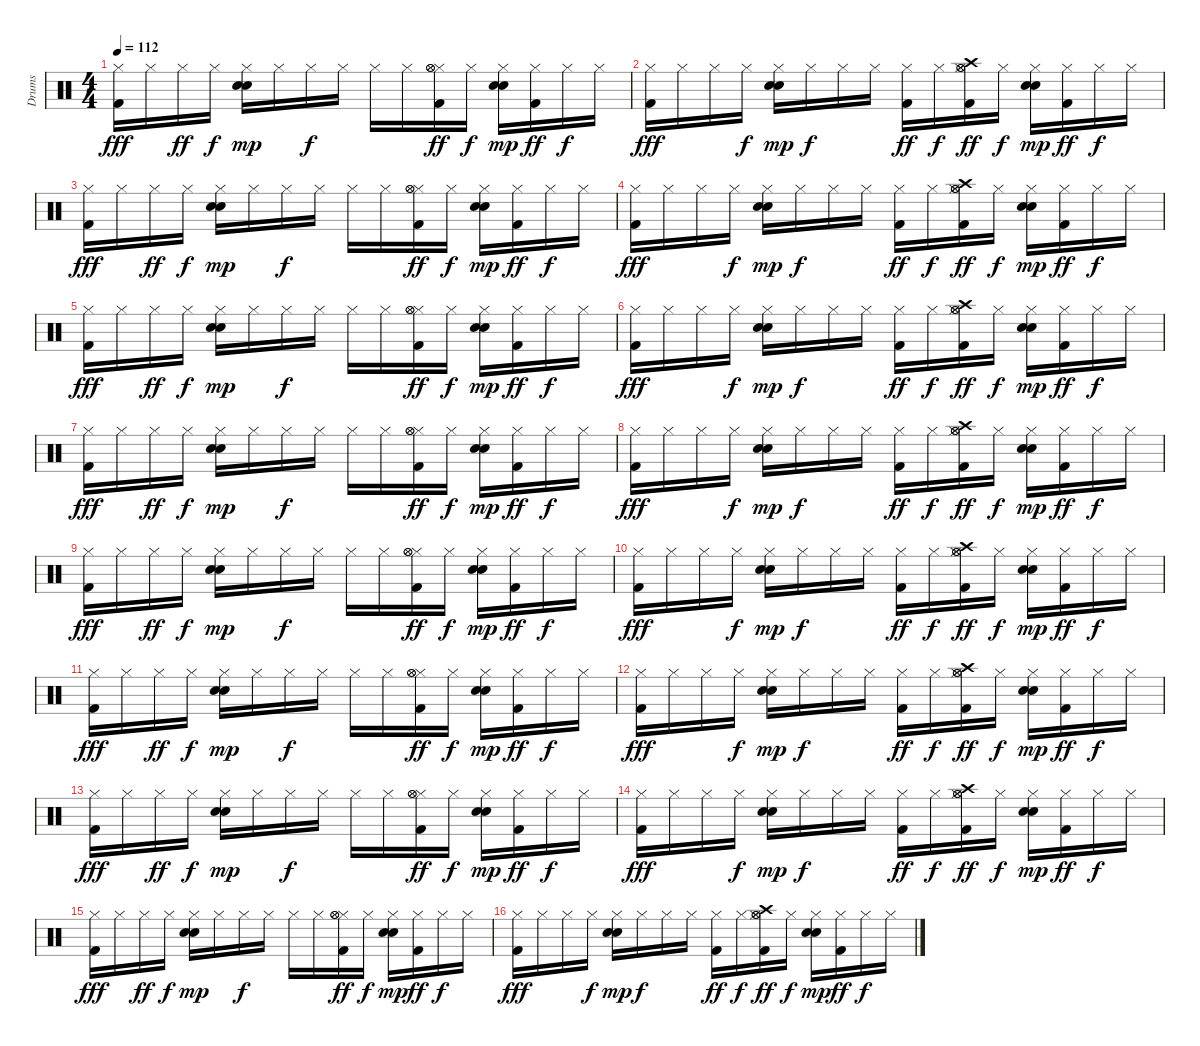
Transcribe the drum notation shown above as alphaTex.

\track ("Drums" "Drums") {instrument percussion}
\staff {score}
\articulation defaults
\ts (4 4)
\tempo 112
\clef neutral
\ks c
("Kick (hit) 2" "Hi-Hat (closed)").16{dy fff} "Hi-Hat (closed)".16 "Hi-Hat (closed)".16{dy ff} "Hi-Hat (closed)".16{dy f} ("Snare (hit) 2" "Hi-Hat (closed)" "Hand Clap (hit)").16{dy mp} "Hi-Hat (closed)".16 "Hi-Hat (closed)".16{dy f} "Hi-Hat (closed)".16 "Hi-Hat (closed)".16 "Hi-Hat (closed)".16 ("Kick (hit) 2" "Hi-Hat (closed)" "Hi-Hat (open)" "Hi-Hat (open)").16{dy ff} "Hi-Hat (closed)".16{dy f} ("Snare (hit) 2" "Hi-Hat (closed)" "Hand Clap (hit)").16{dy mp} ("Kick (hit) 2" "Hi-Hat (closed)").16{dy ff} "Hi-Hat (closed)".16{dy f} "Hi-Hat (closed)".16 |
("Kick (hit) 2" "Hi-Hat (closed)").16{dy fff} "Hi-Hat (closed)".16 "Hi-Hat (closed)".16 "Hi-Hat (closed)".16{dy f} ("Snare (hit) 2" "Hi-Hat (closed)" "Hand Clap (hit)").16{dy mp} "Hi-Hat (closed)".16{dy f} "Hi-Hat (closed)".16 "Hi-Hat (closed)".16 ("Kick (hit) 2" "Hi-Hat (closed)").16{dy ff} "Hi-Hat (closed)".16{dy f} ("Kick (hit) 2" "Crash high (hit)" "Hi-Hat (closed)" "Hi-Hat (open)" "Hi-Hat (open)").16{dy ff} "Hi-Hat (closed)".16{dy f} ("Snare (hit) 2" "Hi-Hat (closed)" "Hand Clap (hit)").16{dy mp} ("Kick (hit) 2" "Hi-Hat (closed)").16{dy ff} "Hi-Hat (closed)".16{dy f} "Hi-Hat (closed)".16 |
("Kick (hit) 2" "Hi-Hat (closed)").16{dy fff} "Hi-Hat (closed)".16 "Hi-Hat (closed)".16{dy ff} "Hi-Hat (closed)".16{dy f} ("Snare (hit) 2" "Hi-Hat (closed)" "Hand Clap (hit)").16{dy mp} "Hi-Hat (closed)".16 "Hi-Hat (closed)".16{dy f} "Hi-Hat (closed)".16 "Hi-Hat (closed)".16 "Hi-Hat (closed)".16 ("Kick (hit) 2" "Hi-Hat (closed)" "Hi-Hat (open)" "Hi-Hat (open)").16{dy ff} "Hi-Hat (closed)".16{dy f} ("Snare (hit) 2" "Hi-Hat (closed)" "Hand Clap (hit)").16{dy mp} ("Kick (hit) 2" "Hi-Hat (closed)").16{dy ff} "Hi-Hat (closed)".16{dy f} "Hi-Hat (closed)".16 |
("Kick (hit) 2" "Hi-Hat (closed)").16{dy fff} "Hi-Hat (closed)".16 "Hi-Hat (closed)".16 "Hi-Hat (closed)".16{dy f} ("Snare (hit) 2" "Hi-Hat (closed)" "Hand Clap (hit)").16{dy mp} "Hi-Hat (closed)".16{dy f} "Hi-Hat (closed)".16 "Hi-Hat (closed)".16 ("Kick (hit) 2" "Hi-Hat (closed)").16{dy ff} "Hi-Hat (closed)".16{dy f} ("Kick (hit) 2" "Crash high (hit)" "Hi-Hat (closed)" "Hi-Hat (open)" "Hi-Hat (open)").16{dy ff} "Hi-Hat (closed)".16{dy f} ("Snare (hit) 2" "Hi-Hat (closed)" "Hand Clap (hit)").16{dy mp} ("Kick (hit) 2" "Hi-Hat (closed)").16{dy ff} "Hi-Hat (closed)".16{dy f} "Hi-Hat (closed)".16 |
("Kick (hit) 2" "Hi-Hat (closed)").16{dy fff} "Hi-Hat (closed)".16 "Hi-Hat (closed)".16{dy ff} "Hi-Hat (closed)".16{dy f} ("Snare (hit) 2" "Hi-Hat (closed)" "Hand Clap (hit)").16{dy mp} "Hi-Hat (closed)".16 "Hi-Hat (closed)".16{dy f} "Hi-Hat (closed)".16 "Hi-Hat (closed)".16 "Hi-Hat (closed)".16 ("Kick (hit) 2" "Hi-Hat (closed)" "Hi-Hat (open)" "Hi-Hat (open)").16{dy ff} "Hi-Hat (closed)".16{dy f} ("Snare (hit) 2" "Hi-Hat (closed)" "Hand Clap (hit)").16{dy mp} ("Kick (hit) 2" "Hi-Hat (closed)").16{dy ff} "Hi-Hat (closed)".16{dy f} "Hi-Hat (closed)".16 |
("Kick (hit) 2" "Hi-Hat (closed)").16{dy fff} "Hi-Hat (closed)".16 "Hi-Hat (closed)".16 "Hi-Hat (closed)".16{dy f} ("Snare (hit) 2" "Hi-Hat (closed)" "Hand Clap (hit)").16{dy mp} "Hi-Hat (closed)".16{dy f} "Hi-Hat (closed)".16 "Hi-Hat (closed)".16 ("Kick (hit) 2" "Hi-Hat (closed)").16{dy ff} "Hi-Hat (closed)".16{dy f} ("Kick (hit) 2" "Crash high (hit)" "Hi-Hat (closed)" "Hi-Hat (open)" "Hi-Hat (open)").16{dy ff} "Hi-Hat (closed)".16{dy f} ("Snare (hit) 2" "Hi-Hat (closed)" "Hand Clap (hit)").16{dy mp} ("Kick (hit) 2" "Hi-Hat (closed)").16{dy ff} "Hi-Hat (closed)".16{dy f} "Hi-Hat (closed)".16 |
("Kick (hit) 2" "Hi-Hat (closed)").16{dy fff} "Hi-Hat (closed)".16 "Hi-Hat (closed)".16{dy ff} "Hi-Hat (closed)".16{dy f} ("Snare (hit) 2" "Hi-Hat (closed)" "Hand Clap (hit)").16{dy mp} "Hi-Hat (closed)".16 "Hi-Hat (closed)".16{dy f} "Hi-Hat (closed)".16 "Hi-Hat (closed)".16 "Hi-Hat (closed)".16 ("Kick (hit) 2" "Hi-Hat (closed)" "Hi-Hat (open)" "Hi-Hat (open)").16{dy ff} "Hi-Hat (closed)".16{dy f} ("Snare (hit) 2" "Hi-Hat (closed)" "Hand Clap (hit)").16{dy mp} ("Kick (hit) 2" "Hi-Hat (closed)").16{dy ff} "Hi-Hat (closed)".16{dy f} "Hi-Hat (closed)".16 |
("Kick (hit) 2" "Hi-Hat (closed)").16{dy fff} "Hi-Hat (closed)".16 "Hi-Hat (closed)".16 "Hi-Hat (closed)".16{dy f} ("Snare (hit) 2" "Hi-Hat (closed)" "Hand Clap (hit)").16{dy mp} "Hi-Hat (closed)".16{dy f} "Hi-Hat (closed)".16 "Hi-Hat (closed)".16 ("Kick (hit) 2" "Hi-Hat (closed)").16{dy ff} "Hi-Hat (closed)".16{dy f} ("Kick (hit) 2" "Crash high (hit)" "Hi-Hat (closed)" "Hi-Hat (open)" "Hi-Hat (open)").16{dy ff} "Hi-Hat (closed)".16{dy f} ("Snare (hit) 2" "Hi-Hat (closed)" "Hand Clap (hit)").16{dy mp} ("Kick (hit) 2" "Hi-Hat (closed)").16{dy ff} "Hi-Hat (closed)".16{dy f} "Hi-Hat (closed)".16 |
("Kick (hit) 2" "Hi-Hat (closed)").16{dy fff} "Hi-Hat (closed)".16 "Hi-Hat (closed)".16{dy ff} "Hi-Hat (closed)".16{dy f} ("Snare (hit) 2" "Hi-Hat (closed)" "Hand Clap (hit)").16{dy mp} "Hi-Hat (closed)".16 "Hi-Hat (closed)".16{dy f} "Hi-Hat (closed)".16 "Hi-Hat (closed)".16 "Hi-Hat (closed)".16 ("Kick (hit) 2" "Hi-Hat (closed)" "Hi-Hat (open)" "Hi-Hat (open)").16{dy ff} "Hi-Hat (closed)".16{dy f} ("Snare (hit) 2" "Hi-Hat (closed)" "Hand Clap (hit)").16{dy mp} ("Kick (hit) 2" "Hi-Hat (closed)").16{dy ff} "Hi-Hat (closed)".16{dy f} "Hi-Hat (closed)".16 |
("Kick (hit) 2" "Hi-Hat (closed)").16{dy fff} "Hi-Hat (closed)".16 "Hi-Hat (closed)".16 "Hi-Hat (closed)".16{dy f} ("Snare (hit) 2" "Hi-Hat (closed)" "Hand Clap (hit)").16{dy mp} "Hi-Hat (closed)".16{dy f} "Hi-Hat (closed)".16 "Hi-Hat (closed)".16 ("Kick (hit) 2" "Hi-Hat (closed)").16{dy ff} "Hi-Hat (closed)".16{dy f} ("Kick (hit) 2" "Crash high (hit)" "Hi-Hat (closed)" "Hi-Hat (open)" "Hi-Hat (open)").16{dy ff} "Hi-Hat (closed)".16{dy f} ("Snare (hit) 2" "Hi-Hat (closed)" "Hand Clap (hit)").16{dy mp} ("Kick (hit) 2" "Hi-Hat (closed)").16{dy ff} "Hi-Hat (closed)".16{dy f} "Hi-Hat (closed)".16 |
("Kick (hit) 2" "Hi-Hat (closed)").16{dy fff} "Hi-Hat (closed)".16 "Hi-Hat (closed)".16{dy ff} "Hi-Hat (closed)".16{dy f} ("Snare (hit) 2" "Hi-Hat (closed)" "Hand Clap (hit)").16{dy mp} "Hi-Hat (closed)".16 "Hi-Hat (closed)".16{dy f} "Hi-Hat (closed)".16 "Hi-Hat (closed)".16 "Hi-Hat (closed)".16 ("Kick (hit) 2" "Hi-Hat (closed)" "Hi-Hat (open)" "Hi-Hat (open)").16{dy ff} "Hi-Hat (closed)".16{dy f} ("Snare (hit) 2" "Hi-Hat (closed)" "Hand Clap (hit)").16{dy mp} ("Kick (hit) 2" "Hi-Hat (closed)").16{dy ff} "Hi-Hat (closed)".16{dy f} "Hi-Hat (closed)".16 |
("Kick (hit) 2" "Hi-Hat (closed)").16{dy fff} "Hi-Hat (closed)".16 "Hi-Hat (closed)".16 "Hi-Hat (closed)".16{dy f} ("Snare (hit) 2" "Hi-Hat (closed)" "Hand Clap (hit)").16{dy mp} "Hi-Hat (closed)".16{dy f} "Hi-Hat (closed)".16 "Hi-Hat (closed)".16 ("Kick (hit) 2" "Hi-Hat (closed)").16{dy ff} "Hi-Hat (closed)".16{dy f} ("Kick (hit) 2" "Crash high (hit)" "Hi-Hat (closed)" "Hi-Hat (open)" "Hi-Hat (open)").16{dy ff} "Hi-Hat (closed)".16{dy f} ("Snare (hit) 2" "Hi-Hat (closed)" "Hand Clap (hit)").16{dy mp} ("Kick (hit) 2" "Hi-Hat (closed)").16{dy ff} "Hi-Hat (closed)".16{dy f} "Hi-Hat (closed)".16 |
("Kick (hit) 2" "Hi-Hat (closed)").16{dy fff} "Hi-Hat (closed)".16 "Hi-Hat (closed)".16{dy ff} "Hi-Hat (closed)".16{dy f} ("Snare (hit) 2" "Hi-Hat (closed)" "Hand Clap (hit)").16{dy mp} "Hi-Hat (closed)".16 "Hi-Hat (closed)".16{dy f} "Hi-Hat (closed)".16 "Hi-Hat (closed)".16 "Hi-Hat (closed)".16 ("Kick (hit) 2" "Hi-Hat (closed)" "Hi-Hat (open)" "Hi-Hat (open)").16{dy ff} "Hi-Hat (closed)".16{dy f} ("Snare (hit) 2" "Hi-Hat (closed)" "Hand Clap (hit)").16{dy mp} ("Kick (hit) 2" "Hi-Hat (closed)").16{dy ff} "Hi-Hat (closed)".16{dy f} "Hi-Hat (closed)".16 |
("Kick (hit) 2" "Hi-Hat (closed)").16{dy fff} "Hi-Hat (closed)".16 "Hi-Hat (closed)".16 "Hi-Hat (closed)".16{dy f} ("Snare (hit) 2" "Hi-Hat (closed)" "Hand Clap (hit)").16{dy mp} "Hi-Hat (closed)".16{dy f} "Hi-Hat (closed)".16 "Hi-Hat (closed)".16 ("Kick (hit) 2" "Hi-Hat (closed)").16{dy ff} "Hi-Hat (closed)".16{dy f} ("Kick (hit) 2" "Crash high (hit)" "Hi-Hat (closed)" "Hi-Hat (open)" "Hi-Hat (open)").16{dy ff} "Hi-Hat (closed)".16{dy f} ("Snare (hit) 2" "Hi-Hat (closed)" "Hand Clap (hit)").16{dy mp} ("Kick (hit) 2" "Hi-Hat (closed)").16{dy ff} "Hi-Hat (closed)".16{dy f} "Hi-Hat (closed)".16 |
("Kick (hit) 2" "Hi-Hat (closed)").16{dy fff} "Hi-Hat (closed)".16 "Hi-Hat (closed)".16{dy ff} "Hi-Hat (closed)".16{dy f} ("Snare (hit) 2" "Hi-Hat (closed)" "Hand Clap (hit)").16{dy mp} "Hi-Hat (closed)".16 "Hi-Hat (closed)".16{dy f} "Hi-Hat (closed)".16 "Hi-Hat (closed)".16 "Hi-Hat (closed)".16 ("Kick (hit) 2" "Hi-Hat (closed)" "Hi-Hat (open)" "Hi-Hat (open)").16{dy ff} "Hi-Hat (closed)".16{dy f} ("Snare (hit) 2" "Hi-Hat (closed)" "Hand Clap (hit)").16{dy mp} ("Kick (hit) 2" "Hi-Hat (closed)").16{dy ff} "Hi-Hat (closed)".16{dy f} "Hi-Hat (closed)".16 |
("Kick (hit) 2" "Hi-Hat (closed)").16{dy fff} "Hi-Hat (closed)".16 "Hi-Hat (closed)".16 "Hi-Hat (closed)".16{dy f} ("Snare (hit) 2" "Hi-Hat (closed)" "Hand Clap (hit)").16{dy mp} "Hi-Hat (closed)".16{dy f} "Hi-Hat (closed)".16 "Hi-Hat (closed)".16 ("Kick (hit) 2" "Hi-Hat (closed)").16{dy ff} "Hi-Hat (closed)".16{dy f} ("Kick (hit) 2" "Crash high (hit)" "Hi-Hat (closed)" "Hi-Hat (open)" "Hi-Hat (open)").16{dy ff} "Hi-Hat (closed)".16{dy f} ("Snare (hit) 2" "Hi-Hat (closed)" "Hand Clap (hit)").16{dy mp} ("Kick (hit) 2" "Hi-Hat (closed)").16{dy ff} "Hi-Hat (closed)".16{dy f} "Hi-Hat (closed)".16
